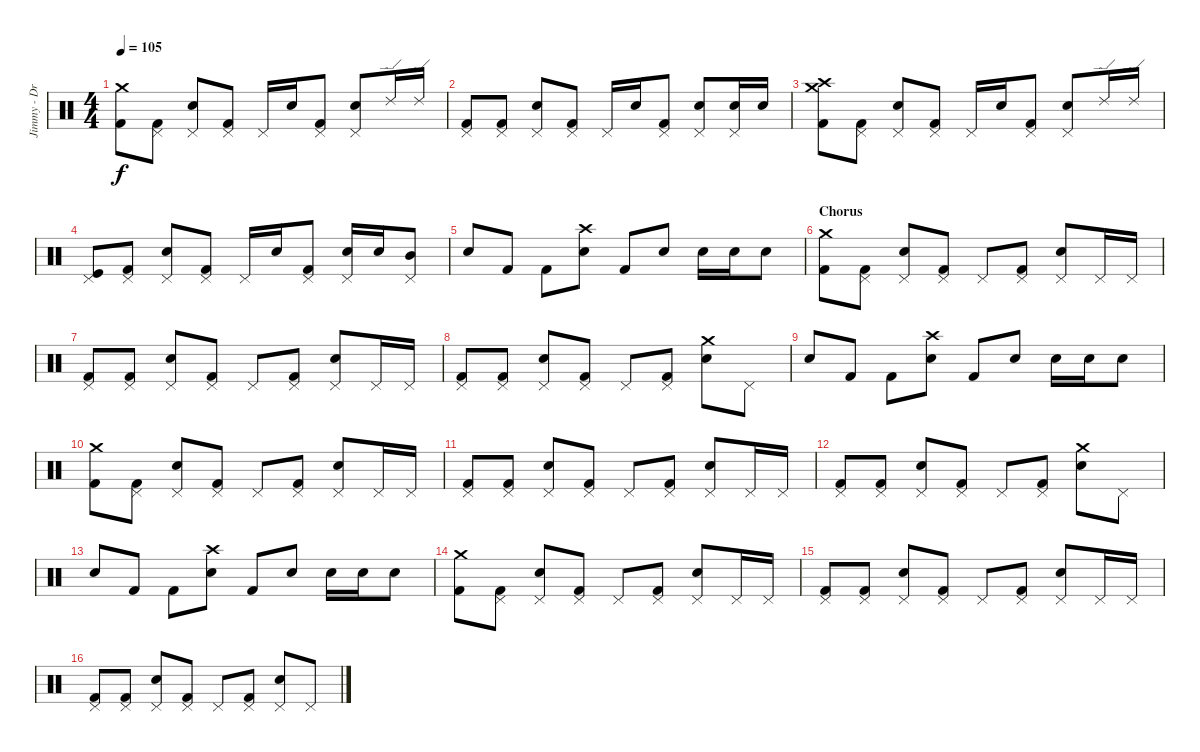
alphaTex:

\track ("Jimmy - Drums" "Jimmy - Dr") {instrument percussion}
\staff {score}
\articulation defaults
\ts (4 4)
\tempo 105
\clef neutral
\ks c
("Crash medium (hit)" "Kick (hit) 2").8{dy f} ("Pedal Hi-Hat (hit)" "Kick (hit) 2").8 ("Pedal Hi-Hat (hit)" "Electric Snare (hit)").8 ("Pedal Hi-Hat (hit)" "Kick (hit) 2").8 "Pedal Hi-Hat (hit)".16 "Electric Snare (hit)".16 ("Pedal Hi-Hat (hit)" "Kick (hit) 2").8 ("Pedal Hi-Hat (hit)" "Electric Snare (hit)").8 "Ride (edge) 2".16 "Ride (edge) 2".16 |
("Pedal Hi-Hat (hit)" "Kick (hit) 2").8 ("Pedal Hi-Hat (hit)" "Kick (hit) 2").8 ("Pedal Hi-Hat (hit)" "Electric Snare (hit)").8 ("Pedal Hi-Hat (hit)" "Kick (hit) 2").8 "Pedal Hi-Hat (hit)".16 "Electric Snare (hit)".16 ("Pedal Hi-Hat (hit)" "Kick (hit) 2").8 ("Pedal Hi-Hat (hit)" "Electric Snare (hit)").8 ("Pedal Hi-Hat (hit)" "Electric Snare (hit)").16 "Electric Snare (hit)".16 |
("Crash medium (hit)" "Crash high (hit)" "Kick (hit) 2").8 ("Pedal Hi-Hat (hit)" "Kick (hit) 2").8 ("Pedal Hi-Hat (hit)" "Electric Snare (hit)").8 ("Pedal Hi-Hat (hit)" "Kick (hit) 2").8 "Pedal Hi-Hat (hit)".16 "Electric Snare (hit)".16 ("Pedal Hi-Hat (hit)" "Kick (hit) 2").8 ("Pedal Hi-Hat (hit)" "Electric Snare (hit)").8 "Ride (edge) 2".16 "Ride (edge) 2".16 |
("Pedal Hi-Hat (hit)" "Kick (hit)").8 ("Pedal Hi-Hat (hit)" "Kick (hit) 2").8 ("Pedal Hi-Hat (hit)" "Electric Snare (hit)").8 ("Pedal Hi-Hat (hit)" "Kick (hit) 2").8 "Pedal Hi-Hat (hit)".16 "Electric Snare (hit)".16 ("Pedal Hi-Hat (hit)" "Kick (hit) 2").8 ("Pedal Hi-Hat (hit)" "Electric Snare (hit)").16 "Electric Snare (hit)".16 ("Pedal Hi-Hat (hit)" "Mid Tom (hit)").8 |
"Electric Snare (hit)".8 "Kick (hit) 2".8 "Kick (hit) 2".8 ("Crash high (hit)" "Electric Snare (hit)").8 "Kick (hit) 2".8 "Electric Snare (hit)".8 "Electric Snare (hit)".16 "Electric Snare (hit)".16 "Electric Snare (hit)".8 |
\section ("" "Chorus")
("Crash medium (hit)" "Kick (hit) 2").8 ("Pedal Hi-Hat (hit)" "Kick (hit) 2").8 ("Pedal Hi-Hat (hit)" "Electric Snare (hit)").8 ("Pedal Hi-Hat (hit)" "Kick (hit) 2").8 "Pedal Hi-Hat (hit)".8 ("Pedal Hi-Hat (hit)" "Kick (hit) 2").8 ("Pedal Hi-Hat (hit)" "Electric Snare (hit)").8 "Pedal Hi-Hat (hit)".16 "Pedal Hi-Hat (hit)".16 |
("Pedal Hi-Hat (hit)" "Kick (hit) 2").8 ("Pedal Hi-Hat (hit)" "Kick (hit) 2").8 ("Pedal Hi-Hat (hit)" "Electric Snare (hit)").8 ("Pedal Hi-Hat (hit)" "Kick (hit) 2").8 "Pedal Hi-Hat (hit)".8 ("Pedal Hi-Hat (hit)" "Kick (hit) 2").8 ("Pedal Hi-Hat (hit)" "Electric Snare (hit)").8 "Pedal Hi-Hat (hit)".16 "Pedal Hi-Hat (hit)".16 |
("Pedal Hi-Hat (hit)" "Kick (hit) 2").8 ("Pedal Hi-Hat (hit)" "Kick (hit) 2").8 ("Pedal Hi-Hat (hit)" "Electric Snare (hit)").8 ("Pedal Hi-Hat (hit)" "Kick (hit) 2").8 "Pedal Hi-Hat (hit)".8 ("Pedal Hi-Hat (hit)" "Kick (hit) 2").8 ("Crash medium (hit)" "Electric Snare (hit)").8 "Pedal Hi-Hat (hit)".8 |
"Electric Snare (hit)".8 "Kick (hit) 2".8 "Kick (hit) 2".8 ("Crash high (hit)" "Electric Snare (hit)").8 "Kick (hit) 2".8 "Electric Snare (hit)".8 "Electric Snare (hit)".16 "Electric Snare (hit)".16 "Electric Snare (hit)".8 |
("Crash medium (hit)" "Kick (hit) 2").8 ("Pedal Hi-Hat (hit)" "Kick (hit) 2").8 ("Pedal Hi-Hat (hit)" "Electric Snare (hit)").8 ("Pedal Hi-Hat (hit)" "Kick (hit) 2").8 "Pedal Hi-Hat (hit)".8 ("Pedal Hi-Hat (hit)" "Kick (hit) 2").8 ("Pedal Hi-Hat (hit)" "Electric Snare (hit)").8 "Pedal Hi-Hat (hit)".16 "Pedal Hi-Hat (hit)".16 |
("Pedal Hi-Hat (hit)" "Kick (hit) 2").8 ("Pedal Hi-Hat (hit)" "Kick (hit) 2").8 ("Pedal Hi-Hat (hit)" "Electric Snare (hit)").8 ("Pedal Hi-Hat (hit)" "Kick (hit) 2").8 "Pedal Hi-Hat (hit)".8 ("Pedal Hi-Hat (hit)" "Kick (hit) 2").8 ("Pedal Hi-Hat (hit)" "Electric Snare (hit)").8 "Pedal Hi-Hat (hit)".16 "Pedal Hi-Hat (hit)".16 |
("Pedal Hi-Hat (hit)" "Kick (hit) 2").8 ("Pedal Hi-Hat (hit)" "Kick (hit) 2").8 ("Pedal Hi-Hat (hit)" "Electric Snare (hit)").8 ("Pedal Hi-Hat (hit)" "Kick (hit) 2").8 "Pedal Hi-Hat (hit)".8 ("Pedal Hi-Hat (hit)" "Kick (hit) 2").8 ("Crash medium (hit)" "Electric Snare (hit)").8 "Pedal Hi-Hat (hit)".8 |
"Electric Snare (hit)".8 "Kick (hit) 2".8 "Kick (hit) 2".8 ("Crash high (hit)" "Electric Snare (hit)").8 "Kick (hit) 2".8 "Electric Snare (hit)".8 "Electric Snare (hit)".16 "Electric Snare (hit)".16 "Electric Snare (hit)".8 |
("Crash medium (hit)" "Kick (hit) 2").8 ("Pedal Hi-Hat (hit)" "Kick (hit) 2").8 ("Pedal Hi-Hat (hit)" "Electric Snare (hit)").8 ("Pedal Hi-Hat (hit)" "Kick (hit) 2").8 "Pedal Hi-Hat (hit)".8 ("Pedal Hi-Hat (hit)" "Kick (hit) 2").8 ("Pedal Hi-Hat (hit)" "Electric Snare (hit)").8 "Pedal Hi-Hat (hit)".16 "Pedal Hi-Hat (hit)".16 |
("Pedal Hi-Hat (hit)" "Kick (hit) 2").8 ("Pedal Hi-Hat (hit)" "Kick (hit) 2").8 ("Pedal Hi-Hat (hit)" "Electric Snare (hit)").8 ("Pedal Hi-Hat (hit)" "Kick (hit) 2").8 "Pedal Hi-Hat (hit)".8 ("Pedal Hi-Hat (hit)" "Kick (hit) 2").8 ("Pedal Hi-Hat (hit)" "Electric Snare (hit)").8 "Pedal Hi-Hat (hit)".16 "Pedal Hi-Hat (hit)".16 |
("Pedal Hi-Hat (hit)" "Kick (hit) 2").8 ("Pedal Hi-Hat (hit)" "Kick (hit) 2").8 ("Pedal Hi-Hat (hit)" "Electric Snare (hit)").8 ("Pedal Hi-Hat (hit)" "Kick (hit) 2").8 "Pedal Hi-Hat (hit)".8 ("Pedal Hi-Hat (hit)" "Kick (hit) 2").8 ("Pedal Hi-Hat (hit)" "Electric Snare (hit)").8 "Pedal Hi-Hat (hit)".8
